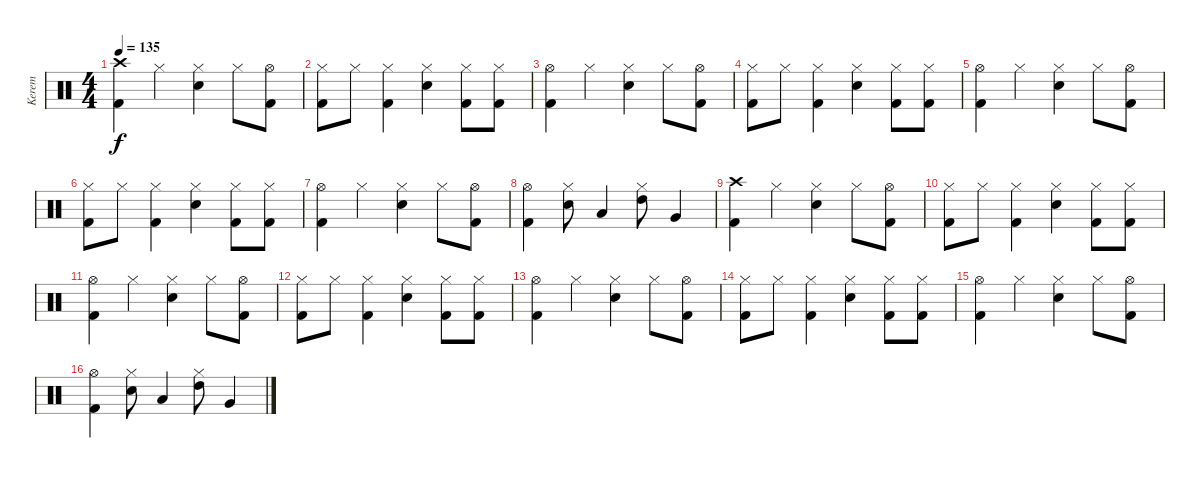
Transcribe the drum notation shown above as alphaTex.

\track ("Kerem" "Kerem") {instrument percussion}
\staff {score}
\articulation defaults
\ts (4 4)
\tempo 135
\clef neutral
\ks c
("Crash high (hit)" "Kick (hit) 2").4{dy f} "Hi-Hat (closed)".4 ("Electric Snare (hit)" "Hi-Hat (closed)").4 "Hi-Hat (closed)".8 ("Hi-Hat (open)" "Kick (hit) 2").8 |
("Hi-Hat (closed)" "Kick (hit) 2").8 "Hi-Hat (closed)".8 ("Hi-Hat (closed)" "Kick (hit) 2").4 ("Electric Snare (hit)" "Hi-Hat (closed)").4 ("Hi-Hat (closed)" "Kick (hit) 2").8 ("Hi-Hat (closed)" "Kick (hit) 2").8 |
("Hi-Hat (open)" "Kick (hit) 2").4 "Hi-Hat (closed)".4 ("Electric Snare (hit)" "Hi-Hat (closed)").4 "Hi-Hat (closed)".8 ("Hi-Hat (open)" "Kick (hit) 2").8 |
("Hi-Hat (closed)" "Kick (hit) 2").8 "Hi-Hat (closed)".8 ("Hi-Hat (closed)" "Kick (hit) 2").4 ("Electric Snare (hit)" "Hi-Hat (closed)").4 ("Hi-Hat (closed)" "Kick (hit) 2").8 ("Hi-Hat (closed)" "Kick (hit) 2").8 |
("Hi-Hat (open)" "Kick (hit) 2").4 "Hi-Hat (closed)".4 ("Electric Snare (hit)" "Hi-Hat (closed)").4 "Hi-Hat (closed)".8 ("Hi-Hat (open)" "Kick (hit) 2").8 |
("Hi-Hat (closed)" "Kick (hit) 2").8 "Hi-Hat (closed)".8 ("Hi-Hat (closed)" "Kick (hit) 2").4 ("Electric Snare (hit)" "Hi-Hat (closed)").4 ("Hi-Hat (closed)" "Kick (hit) 2").8 ("Hi-Hat (closed)" "Kick (hit) 2").8 |
("Hi-Hat (open)" "Kick (hit) 2").4 "Hi-Hat (closed)".4 ("Electric Snare (hit)" "Hi-Hat (closed)").4 "Hi-Hat (closed)".8 ("Hi-Hat (open)" "Kick (hit) 2").8 |
("Kick (hit) 2" "Hi-Hat (open)").4 ("Electric Snare (hit)" "Hi-Hat (closed)").8 "Low Tom (hit)".4 ("High Tom (hit)" "Hi-Hat (closed)").8 "Very Low Tom (hit)".4 |
("Crash high (hit)" "Kick (hit) 2").4 "Hi-Hat (closed)".4 ("Electric Snare (hit)" "Hi-Hat (closed)").4 "Hi-Hat (closed)".8 ("Hi-Hat (open)" "Kick (hit) 2").8 |
("Hi-Hat (closed)" "Kick (hit) 2").8 "Hi-Hat (closed)".8 ("Hi-Hat (closed)" "Kick (hit) 2").4 ("Electric Snare (hit)" "Hi-Hat (closed)").4 ("Hi-Hat (closed)" "Kick (hit) 2").8 ("Hi-Hat (closed)" "Kick (hit) 2").8 |
("Hi-Hat (open)" "Kick (hit) 2").4 "Hi-Hat (closed)".4 ("Electric Snare (hit)" "Hi-Hat (closed)").4 "Hi-Hat (closed)".8 ("Hi-Hat (open)" "Kick (hit) 2").8 |
("Hi-Hat (closed)" "Kick (hit) 2").8 "Hi-Hat (closed)".8 ("Hi-Hat (closed)" "Kick (hit) 2").4 ("Electric Snare (hit)" "Hi-Hat (closed)").4 ("Hi-Hat (closed)" "Kick (hit) 2").8 ("Hi-Hat (closed)" "Kick (hit) 2").8 |
("Hi-Hat (open)" "Kick (hit) 2").4 "Hi-Hat (closed)".4 ("Electric Snare (hit)" "Hi-Hat (closed)").4 "Hi-Hat (closed)".8 ("Hi-Hat (open)" "Kick (hit) 2").8 |
("Hi-Hat (closed)" "Kick (hit) 2").8 "Hi-Hat (closed)".8 ("Hi-Hat (closed)" "Kick (hit) 2").4 ("Electric Snare (hit)" "Hi-Hat (closed)").4 ("Hi-Hat (closed)" "Kick (hit) 2").8 ("Hi-Hat (closed)" "Kick (hit) 2").8 |
("Hi-Hat (open)" "Kick (hit) 2").4 "Hi-Hat (closed)".4 ("Electric Snare (hit)" "Hi-Hat (closed)").4 "Hi-Hat (closed)".8 ("Hi-Hat (open)" "Kick (hit) 2").8 |
("Kick (hit) 2" "Hi-Hat (open)").4 ("Electric Snare (hit)" "Hi-Hat (closed)").8 "Low Tom (hit)".4 ("High Tom (hit)" "Hi-Hat (closed)").8 "Very Low Tom (hit)".4
